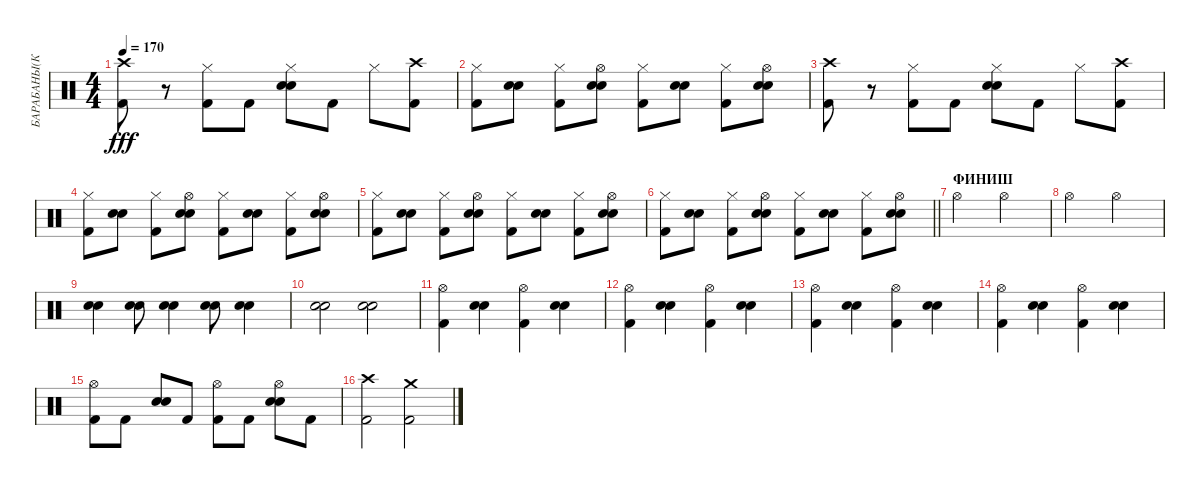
\track ("БАРАБАНЫ(КАРДАН)" "БАРАБАНЫ(К") {instrument percussion}
\staff {score}
\articulation defaults
\ts (4 4)
\tempo 170
\clef neutral
\ks c
("Kick (hit) 2" "Crash high (hit)").8{dy fff} r.8 ("Kick (hit) 2" "Hi-Hat (closed)").8 "Kick (hit) 2".8 ("Snare (hit) 2" "Electric Snare (hit)" "Hi-Hat (closed)").8 "Kick (hit) 2".8 "Hi-Hat (closed)".8 ("Kick (hit) 2" "Crash high (hit)").8 |
("Kick (hit) 2" "Hi-Hat (closed)").8 ("Snare (hit) 2" "Electric Snare (hit)").8 ("Kick (hit) 2" "Hi-Hat (closed)").8 ("Electric Snare (hit)" "Snare (hit) 2" "Hi-Hat (open)").8 ("Kick (hit) 2" "Hi-Hat (closed)").8 ("Snare (hit) 2" "Electric Snare (hit)").8 ("Kick (hit) 2" "Hi-Hat (closed)").8 ("Electric Snare (hit)" "Snare (hit) 2" "Hi-Hat (open)").8 |
("Kick (hit) 2" "Crash high (hit)").8 r.8 ("Kick (hit) 2" "Hi-Hat (closed)").8 "Kick (hit) 2".8 ("Snare (hit) 2" "Electric Snare (hit)" "Hi-Hat (closed)").8 "Kick (hit) 2".8 "Hi-Hat (closed)".8 ("Kick (hit) 2" "Crash high (hit)").8 |
("Kick (hit) 2" "Hi-Hat (closed)").8 ("Snare (hit) 2" "Electric Snare (hit)").8 ("Kick (hit) 2" "Hi-Hat (closed)").8 ("Electric Snare (hit)" "Snare (hit) 2" "Hi-Hat (open)").8 ("Kick (hit) 2" "Hi-Hat (closed)").8 ("Snare (hit) 2" "Electric Snare (hit)").8 ("Kick (hit) 2" "Hi-Hat (closed)").8 ("Electric Snare (hit)" "Snare (hit) 2" "Hi-Hat (open)").8 |
("Kick (hit) 2" "Hi-Hat (closed)").8 ("Snare (hit) 2" "Electric Snare (hit)").8 ("Kick (hit) 2" "Hi-Hat (closed)").8 ("Electric Snare (hit)" "Snare (hit) 2" "Hi-Hat (open)").8 ("Kick (hit) 2" "Hi-Hat (closed)").8 ("Snare (hit) 2" "Electric Snare (hit)").8 ("Kick (hit) 2" "Hi-Hat (closed)").8 ("Electric Snare (hit)" "Snare (hit) 2" "Hi-Hat (open)").8 |
\barLineRight lightlight
("Kick (hit) 2" "Hi-Hat (closed)").8 ("Snare (hit) 2" "Electric Snare (hit)").8 ("Kick (hit) 2" "Hi-Hat (closed)").8 ("Electric Snare (hit)" "Snare (hit) 2" "Hi-Hat (open)").8 ("Kick (hit) 2" "Hi-Hat (closed)").8 ("Snare (hit) 2" "Electric Snare (hit)").8 ("Kick (hit) 2" "Hi-Hat (closed)").8 ("Electric Snare (hit)" "Snare (hit) 2" "Hi-Hat (open)").8 |
\section ("" "ФИНИШ")
"Hi-Hat (open)".2 "Hi-Hat (open)".2 |
"Hi-Hat (open)".2 "Hi-Hat (open)".2 |
("Snare (hit) 2" "Electric Snare (hit)").4 ("Snare (hit) 2" "Electric Snare (hit)").8 ("Snare (hit) 2" "Electric Snare (hit)").4 ("Snare (hit) 2" "Electric Snare (hit)").8 ("Snare (hit) 2" "Electric Snare (hit)").4 |
("Snare (hit) 2" "Electric Snare (hit)").2 ("Snare (hit) 2" "Electric Snare (hit)").2 |
("Kick (hit) 2" "Hi-Hat (open)").4 ("Snare (hit) 2" "Electric Snare (hit)").4 ("Kick (hit) 2" "Hi-Hat (open)").4 ("Electric Snare (hit)" "Snare (hit) 2").4 |
("Kick (hit) 2" "Hi-Hat (open)").4 ("Snare (hit) 2" "Electric Snare (hit)").4 ("Kick (hit) 2" "Hi-Hat (open)").4 ("Electric Snare (hit)" "Snare (hit) 2").4 |
("Kick (hit) 2" "Hi-Hat (open)").4 ("Snare (hit) 2" "Electric Snare (hit)").4 ("Kick (hit) 2" "Hi-Hat (open)").4 ("Electric Snare (hit)" "Snare (hit) 2").4 |
("Kick (hit) 2" "Hi-Hat (open)").4 ("Snare (hit) 2" "Electric Snare (hit)").4 ("Kick (hit) 2" "Hi-Hat (open)").4 ("Electric Snare (hit)" "Snare (hit) 2").4 |
("Kick (hit) 2" "Hi-Hat (open)").8 "Kick (hit) 2".8 ("Snare (hit) 2" "Electric Snare (hit)").8 "Kick (hit) 2".8 ("Kick (hit) 2" "Hi-Hat (open)").8 "Kick (hit) 2".8 ("Snare (hit) 2" "Electric Snare (hit)" "Hi-Hat (open)").8 "Kick (hit) 2".8 |
("Kick (hit) 2" "Crash high (hit)").2 ("Kick (hit) 2" "Crash medium (hit)").2
